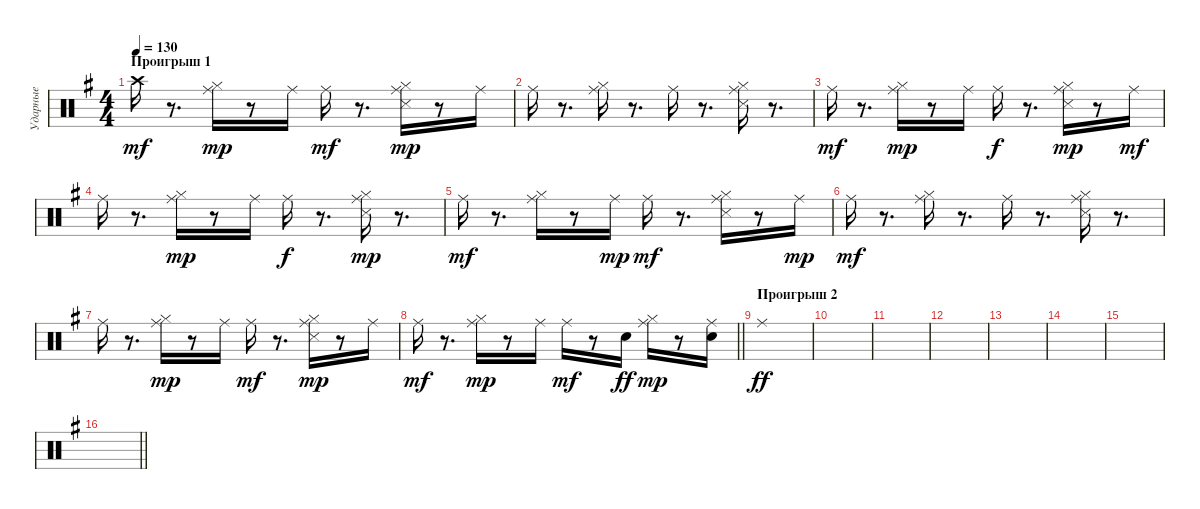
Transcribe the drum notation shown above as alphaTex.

\track ("Ударные" "Ударные") {instrument percussion}
\staff {score}
\articulation defaults
\ts (4 4)
\section ("" "Проигрыш 1")
\tempo 130
\clef neutral
\ks eminor "Crash high (hit)".16{dy mf}
r.8{d} ("Hi-Hat (closed)" "Ride (middle)").16{dy mp} r.8 "Ride (middle)".16 "Ride (middle)".16{dy mf} r.8{d} ("Hi-Hat (closed)" "Snare (side stick) 3" "Ride (middle)").16{dy mp} r.8 "Ride (middle)".16 |
"Ride (middle)".16 r.8{d} ("Hi-Hat (closed)" "Ride (middle)").16 r.8{d} "Ride (middle)".16 r.8{d} ("Hi-Hat (closed)" "Snare (side stick) 3" "Ride (middle)").16 r.8{d} |
"Ride (middle)".16{dy mf} r.8{d} ("Hi-Hat (closed)" "Ride (middle)").16{dy mp} r.8 "Ride (middle)".16 "Ride (middle)".16{dy f} r.8{d} ("Hi-Hat (closed)" "Snare (side stick) 3" "Ride (middle)").16{dy mp} r.8 "Ride (middle)".16{dy mf} |
"Ride (middle)".16 r.8{d} ("Hi-Hat (closed)" "Ride (middle)").16{dy mp} r.8 "Ride (middle)".16 "Ride (middle)".16{dy f} r.8{d} ("Hi-Hat (closed)" "Snare (side stick) 3" "Ride (middle)").16{dy mp} r.8{d} |
"Ride (middle)".16{dy mf} r.8{d} ("Hi-Hat (closed)" "Ride (middle)").16 r.8 "Ride (middle)".16{dy mp} "Ride (middle)".16{dy mf} r.8{d} ("Hi-Hat (closed)" "Snare (side stick) 3" "Ride (middle)").16 r.8 "Ride (middle)".16{dy mp} |
"Ride (middle)".16{dy mf} r.8{d} ("Hi-Hat (closed)" "Ride (middle)").16 r.8{d} "Ride (middle)".16 r.8{d} ("Hi-Hat (closed)" "Snare (side stick) 3" "Ride (middle)").16 r.8{d} |
"Ride (middle)".16 r.8{d} ("Hi-Hat (closed)" "Ride (middle)").16{dy mp} r.8 "Ride (middle)".16 "Ride (middle)".16{dy mf} r.8{d} ("Hi-Hat (closed)" "Snare (side stick) 3" "Ride (middle)").16{dy mp} r.8 "Ride (middle)".16 |
\barLineRight lightlight "Ride (middle)".16{dy mf}
r.8{d} ("Hi-Hat (closed)" "Ride (middle)").16{dy mp} r.8 "Ride (middle)".16 "Ride (middle)".16{dy mf} r.8 "Electric Snare (hit)".16{dy ff} ("Hi-Hat (closed)" "Ride (middle)").16{dy mp} r.8 ("Snare (hit) 2" "Ride (middle)").16 |
\section ("" "Проигрыш 2")
"Ride (middle)".1{dy ff} |
|
|
|
|
|
|
\barLineRight lightlight
